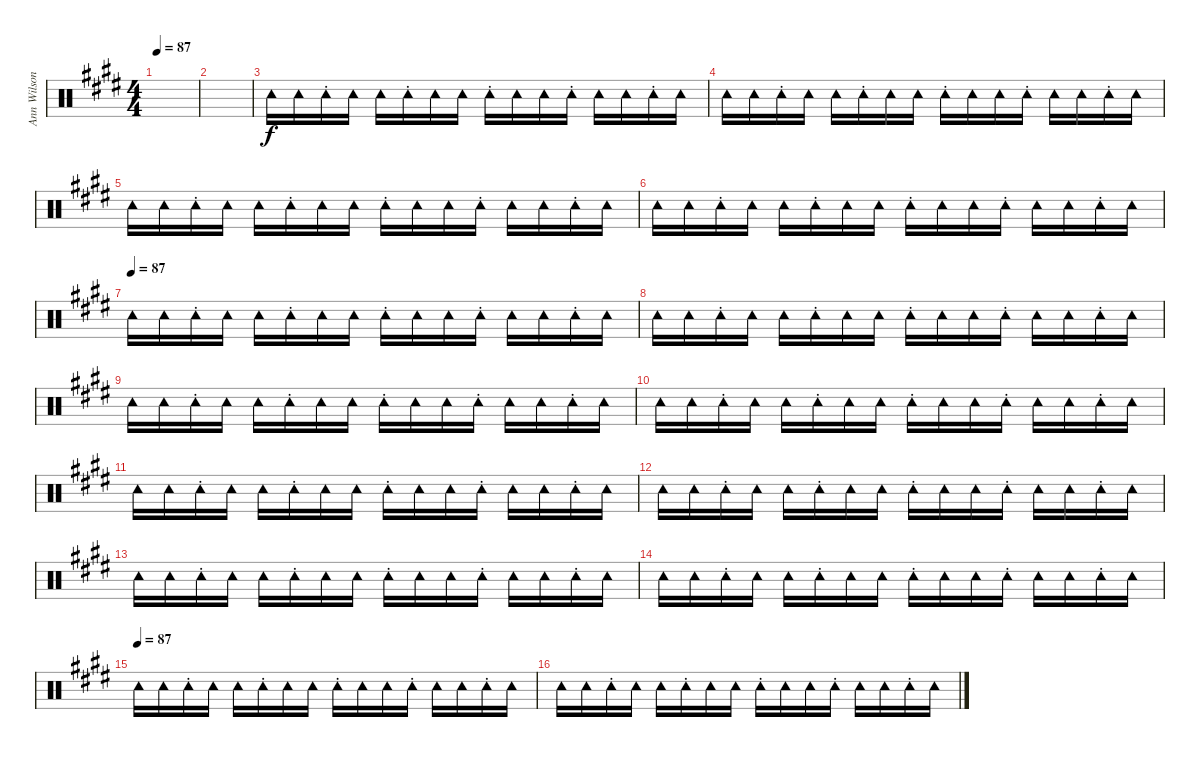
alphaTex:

\track ("Ann Wilson Tambrine" "Ann Wilson") {instrument percussion}
\staff {score}
\articulation defaults
\ts (4 4)
\tempo 87
\clef neutral
\ks e
|
|
"Tambourine (hit)".16 "Tambourine (hit)".16 "Tambourine (hit)"{st}.16 "Tambourine (hit)".16 "Tambourine (hit)".16 "Tambourine (hit)"{st}.16 "Tambourine (hit)".16 "Tambourine (hit)".16 "Tambourine (hit)"{st}.16 "Tambourine (hit)".16 "Tambourine (hit)".16 "Tambourine (hit)"{st}.16 "Tambourine (hit)".16 "Tambourine (hit)".16 "Tambourine (hit)"{st}.16 "Tambourine (hit)".16 |
"Tambourine (hit)".16 "Tambourine (hit)".16 "Tambourine (hit)"{st}.16 "Tambourine (hit)".16 "Tambourine (hit)".16 "Tambourine (hit)"{st}.16 "Tambourine (hit)".16 "Tambourine (hit)".16 "Tambourine (hit)"{st}.16 "Tambourine (hit)".16 "Tambourine (hit)".16 "Tambourine (hit)"{st}.16 "Tambourine (hit)".16 "Tambourine (hit)".16 "Tambourine (hit)"{st}.16 "Tambourine (hit)".16 |
"Tambourine (hit)".16 "Tambourine (hit)".16 "Tambourine (hit)"{st}.16 "Tambourine (hit)".16 "Tambourine (hit)".16 "Tambourine (hit)"{st}.16 "Tambourine (hit)".16 "Tambourine (hit)".16 "Tambourine (hit)"{st}.16 "Tambourine (hit)".16 "Tambourine (hit)".16 "Tambourine (hit)"{st}.16 "Tambourine (hit)".16 "Tambourine (hit)".16 "Tambourine (hit)"{st}.16 "Tambourine (hit)".16 |
"Tambourine (hit)".16 "Tambourine (hit)".16 "Tambourine (hit)"{st}.16 "Tambourine (hit)".16 "Tambourine (hit)".16 "Tambourine (hit)"{st}.16 "Tambourine (hit)".16 "Tambourine (hit)".16 "Tambourine (hit)"{st}.16 "Tambourine (hit)".16 "Tambourine (hit)".16 "Tambourine (hit)"{st}.16 "Tambourine (hit)".16 "Tambourine (hit)".16 "Tambourine (hit)"{st}.16 "Tambourine (hit)".16 |
\tempo (87)
"Tambourine (hit)".16 "Tambourine (hit)".16 "Tambourine (hit)"{st}.16 "Tambourine (hit)".16 "Tambourine (hit)".16 "Tambourine (hit)"{st}.16 "Tambourine (hit)".16 "Tambourine (hit)".16 "Tambourine (hit)"{st}.16 "Tambourine (hit)".16 "Tambourine (hit)".16 "Tambourine (hit)"{st}.16 "Tambourine (hit)".16 "Tambourine (hit)".16 "Tambourine (hit)"{st}.16 "Tambourine (hit)".16 |
"Tambourine (hit)".16 "Tambourine (hit)".16 "Tambourine (hit)"{st}.16 "Tambourine (hit)".16 "Tambourine (hit)".16 "Tambourine (hit)"{st}.16 "Tambourine (hit)".16 "Tambourine (hit)".16 "Tambourine (hit)"{st}.16 "Tambourine (hit)".16 "Tambourine (hit)".16 "Tambourine (hit)"{st}.16 "Tambourine (hit)".16 "Tambourine (hit)".16 "Tambourine (hit)"{st}.16 "Tambourine (hit)".16 |
"Tambourine (hit)".16 "Tambourine (hit)".16 "Tambourine (hit)"{st}.16 "Tambourine (hit)".16 "Tambourine (hit)".16 "Tambourine (hit)"{st}.16 "Tambourine (hit)".16 "Tambourine (hit)".16 "Tambourine (hit)"{st}.16 "Tambourine (hit)".16 "Tambourine (hit)".16 "Tambourine (hit)"{st}.16 "Tambourine (hit)".16 "Tambourine (hit)".16 "Tambourine (hit)"{st}.16 "Tambourine (hit)".16 |
"Tambourine (hit)".16 "Tambourine (hit)".16 "Tambourine (hit)"{st}.16 "Tambourine (hit)".16 "Tambourine (hit)".16 "Tambourine (hit)"{st}.16 "Tambourine (hit)".16 "Tambourine (hit)".16 "Tambourine (hit)"{st}.16 "Tambourine (hit)".16 "Tambourine (hit)".16 "Tambourine (hit)"{st}.16 "Tambourine (hit)".16 "Tambourine (hit)".16 "Tambourine (hit)"{st}.16 "Tambourine (hit)".16 |
"Tambourine (hit)".16 "Tambourine (hit)".16 "Tambourine (hit)"{st}.16 "Tambourine (hit)".16 "Tambourine (hit)".16 "Tambourine (hit)"{st}.16 "Tambourine (hit)".16 "Tambourine (hit)".16 "Tambourine (hit)"{st}.16 "Tambourine (hit)".16 "Tambourine (hit)".16 "Tambourine (hit)"{st}.16 "Tambourine (hit)".16 "Tambourine (hit)".16 "Tambourine (hit)"{st}.16 "Tambourine (hit)".16 |
"Tambourine (hit)".16 "Tambourine (hit)".16 "Tambourine (hit)"{st}.16 "Tambourine (hit)".16 "Tambourine (hit)".16 "Tambourine (hit)"{st}.16 "Tambourine (hit)".16 "Tambourine (hit)".16 "Tambourine (hit)"{st}.16 "Tambourine (hit)".16 "Tambourine (hit)".16 "Tambourine (hit)"{st}.16 "Tambourine (hit)".16 "Tambourine (hit)".16 "Tambourine (hit)"{st}.16 "Tambourine (hit)".16 |
"Tambourine (hit)".16 "Tambourine (hit)".16 "Tambourine (hit)"{st}.16 "Tambourine (hit)".16 "Tambourine (hit)".16 "Tambourine (hit)"{st}.16 "Tambourine (hit)".16 "Tambourine (hit)".16 "Tambourine (hit)"{st}.16 "Tambourine (hit)".16 "Tambourine (hit)".16 "Tambourine (hit)"{st}.16 "Tambourine (hit)".16 "Tambourine (hit)".16 "Tambourine (hit)"{st}.16 "Tambourine (hit)".16 |
"Tambourine (hit)".16 "Tambourine (hit)".16 "Tambourine (hit)"{st}.16 "Tambourine (hit)".16 "Tambourine (hit)".16 "Tambourine (hit)"{st}.16 "Tambourine (hit)".16 "Tambourine (hit)".16 "Tambourine (hit)"{st}.16 "Tambourine (hit)".16 "Tambourine (hit)".16 "Tambourine (hit)"{st}.16 "Tambourine (hit)".16 "Tambourine (hit)".16 "Tambourine (hit)"{st}.16 "Tambourine (hit)".16 |
\tempo (87)
"Tambourine (hit)".16 "Tambourine (hit)".16 "Tambourine (hit)"{st}.16 "Tambourine (hit)".16 "Tambourine (hit)".16 "Tambourine (hit)"{st}.16 "Tambourine (hit)".16 "Tambourine (hit)".16 "Tambourine (hit)"{st}.16 "Tambourine (hit)".16 "Tambourine (hit)".16 "Tambourine (hit)"{st}.16 "Tambourine (hit)".16 "Tambourine (hit)".16 "Tambourine (hit)"{st}.16 "Tambourine (hit)".16 |
"Tambourine (hit)".16 "Tambourine (hit)".16 "Tambourine (hit)"{st}.16 "Tambourine (hit)".16 "Tambourine (hit)".16 "Tambourine (hit)"{st}.16 "Tambourine (hit)".16 "Tambourine (hit)".16 "Tambourine (hit)"{st}.16 "Tambourine (hit)".16 "Tambourine (hit)".16 "Tambourine (hit)"{st}.16 "Tambourine (hit)".16 "Tambourine (hit)".16 "Tambourine (hit)"{st}.16 "Tambourine (hit)".16
